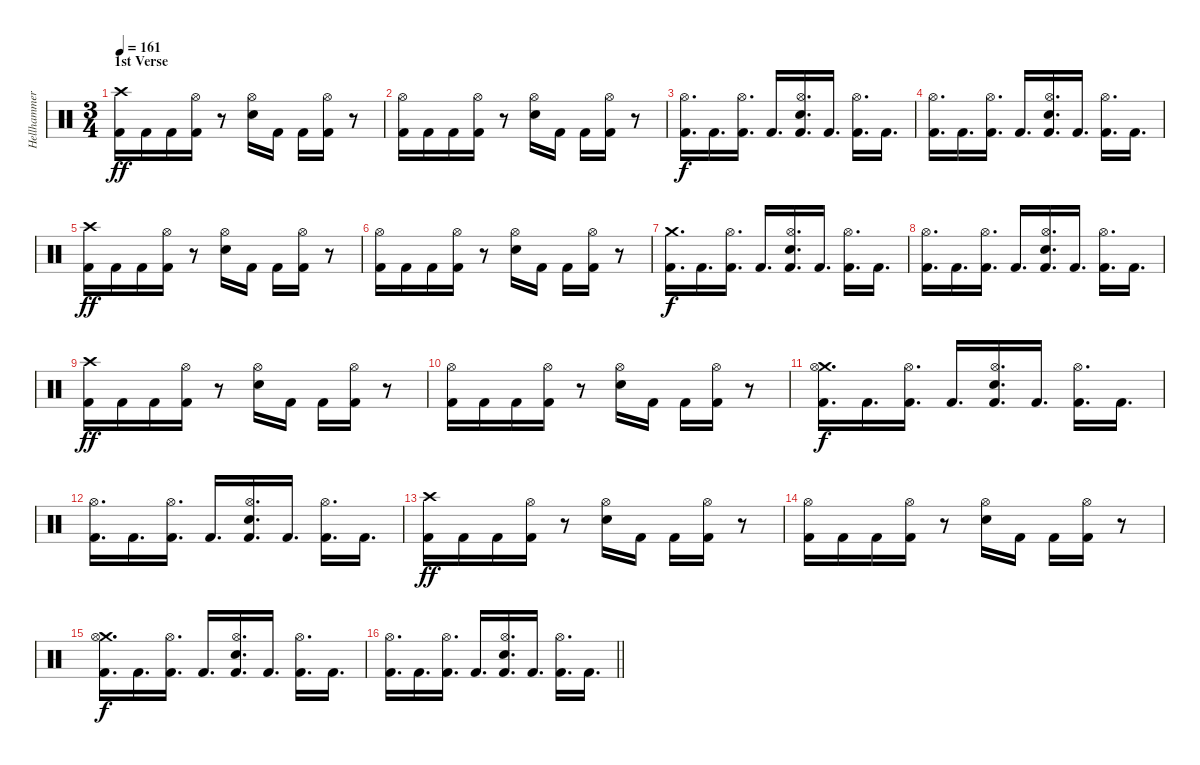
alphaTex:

\track ("Hellhammer" "Hellhammer") {instrument percussion}
\staff {score}
\articulation defaults
\ts (3 4)
\section ("" "1st Verse")
\tempo 161
\clef neutral
\ks c
("Crash high (hit)" "Kick (hit) 2").16{dy ff} "Kick (hit) 2".16 "Kick (hit) 2".16 ("Hi-Hat (open)" "Kick (hit) 2").16 r.8 ("Hi-Hat (open)" "Snare (hit) 2").16 "Kick (hit) 2".16 "Kick (hit) 2".16 ("Hi-Hat (open)" "Kick (hit) 2").16 r.8 |
("Hi-Hat (open)" "Kick (hit) 2").16 "Kick (hit) 2".16 "Kick (hit) 2".16 ("Hi-Hat (open)" "Kick (hit) 2").16 r.8 ("Hi-Hat (open)" "Snare (hit) 2").16 "Kick (hit) 2".16 "Kick (hit) 2".16 ("Hi-Hat (open)" "Kick (hit) 2").16 r.8 |
("Hi-Hat (open)" "Kick (hit) 2").16{d dy f} "Kick (hit) 2".16{d} ("Hi-Hat (open)" "Kick (hit) 2").16{d} "Kick (hit) 2".16{d} ("Hi-Hat (open)" "Snare (hit) 2" "Kick (hit) 2").16{d} "Kick (hit) 2".16{d} ("Hi-Hat (open)" "Kick (hit) 2").16{d} "Kick (hit) 2".16{d} |
("Hi-Hat (open)" "Kick (hit) 2").16{d} "Kick (hit) 2".16{d} ("Hi-Hat (open)" "Kick (hit) 2").16{d} "Kick (hit) 2".16{d} ("Hi-Hat (open)" "Snare (hit) 2" "Kick (hit) 2").16{d} "Kick (hit) 2".16{d} ("Hi-Hat (open)" "Kick (hit) 2").16{d} "Kick (hit) 2".16{d} |
("Crash high (hit)" "Kick (hit) 2").16{dy ff} "Kick (hit) 2".16 "Kick (hit) 2".16 ("Hi-Hat (open)" "Kick (hit) 2").16 r.8 ("Hi-Hat (open)" "Snare (hit) 2").16 "Kick (hit) 2".16 "Kick (hit) 2".16 ("Hi-Hat (open)" "Kick (hit) 2").16 r.8 |
("Hi-Hat (open)" "Kick (hit) 2").16 "Kick (hit) 2".16 "Kick (hit) 2".16 ("Hi-Hat (open)" "Kick (hit) 2").16 r.8 ("Hi-Hat (open)" "Snare (hit) 2").16 "Kick (hit) 2".16 "Kick (hit) 2".16 ("Hi-Hat (open)" "Kick (hit) 2").16 r.8 |
("Crash medium (hit)" "Kick (hit) 2").16{d dy f} "Kick (hit) 2".16{d} ("Hi-Hat (open)" "Kick (hit) 2").16{d} "Kick (hit) 2".16{d} ("Hi-Hat (open)" "Snare (hit) 2" "Kick (hit) 2").16{d} "Kick (hit) 2".16{d} ("Hi-Hat (open)" "Kick (hit) 2").16{d} "Kick (hit) 2".16{d} |
("Hi-Hat (open)" "Kick (hit) 2").16{d} "Kick (hit) 2".16{d} ("Hi-Hat (open)" "Kick (hit) 2").16{d} "Kick (hit) 2".16{d} ("Hi-Hat (open)" "Snare (hit) 2" "Kick (hit) 2").16{d} "Kick (hit) 2".16{d} ("Hi-Hat (open)" "Kick (hit) 2").16{d} "Kick (hit) 2".16{d} |
("Crash high (hit)" "Kick (hit) 2").16{dy ff} "Kick (hit) 2".16 "Kick (hit) 2".16 ("Hi-Hat (open)" "Kick (hit) 2").16 r.8 ("Hi-Hat (open)" "Snare (hit) 2").16 "Kick (hit) 2".16 "Kick (hit) 2".16 ("Hi-Hat (open)" "Kick (hit) 2").16 r.8 |
("Hi-Hat (open)" "Kick (hit) 2").16 "Kick (hit) 2".16 "Kick (hit) 2".16 ("Hi-Hat (open)" "Kick (hit) 2").16 r.8 ("Hi-Hat (open)" "Snare (hit) 2").16 "Kick (hit) 2".16 "Kick (hit) 2".16 ("Hi-Hat (open)" "Kick (hit) 2").16 r.8 |
("Crash medium (hit)" "Hi-Hat (open)" "Kick (hit) 2").16{d dy f} "Kick (hit) 2".16{d} ("Hi-Hat (open)" "Kick (hit) 2").16{d} "Kick (hit) 2".16{d} ("Hi-Hat (open)" "Snare (hit) 2" "Kick (hit) 2").16{d} "Kick (hit) 2".16{d} ("Hi-Hat (open)" "Kick (hit) 2").16{d} "Kick (hit) 2".16{d} |
("Hi-Hat (open)" "Kick (hit) 2").16{d} "Kick (hit) 2".16{d} ("Hi-Hat (open)" "Kick (hit) 2").16{d} "Kick (hit) 2".16{d} ("Hi-Hat (open)" "Snare (hit) 2" "Kick (hit) 2").16{d} "Kick (hit) 2".16{d} ("Hi-Hat (open)" "Kick (hit) 2").16{d} "Kick (hit) 2".16{d} |
("Crash high (hit)" "Kick (hit) 2").16{dy ff} "Kick (hit) 2".16 "Kick (hit) 2".16 ("Hi-Hat (open)" "Kick (hit) 2").16 r.8 ("Hi-Hat (open)" "Snare (hit) 2").16 "Kick (hit) 2".16 "Kick (hit) 2".16 ("Hi-Hat (open)" "Kick (hit) 2").16 r.8 |
("Hi-Hat (open)" "Kick (hit) 2").16 "Kick (hit) 2".16 "Kick (hit) 2".16 ("Hi-Hat (open)" "Kick (hit) 2").16 r.8 ("Hi-Hat (open)" "Snare (hit) 2").16 "Kick (hit) 2".16 "Kick (hit) 2".16 ("Hi-Hat (open)" "Kick (hit) 2").16 r.8 |
("Crash medium (hit)" "Hi-Hat (open)" "Kick (hit) 2").16{d dy f} "Kick (hit) 2".16{d} ("Hi-Hat (open)" "Kick (hit) 2").16{d} "Kick (hit) 2".16{d} ("Hi-Hat (open)" "Snare (hit) 2" "Kick (hit) 2").16{d} "Kick (hit) 2".16{d} ("Hi-Hat (open)" "Kick (hit) 2").16{d} "Kick (hit) 2".16{d} |
\barLineRight lightlight
("Hi-Hat (open)" "Kick (hit) 2").16{d} "Kick (hit) 2".16{d} ("Hi-Hat (open)" "Kick (hit) 2").16{d} "Kick (hit) 2".16{d} ("Hi-Hat (open)" "Snare (hit) 2" "Kick (hit) 2").16{d} "Kick (hit) 2".16{d} ("Hi-Hat (open)" "Kick (hit) 2").16{d} "Kick (hit) 2".16{d}
